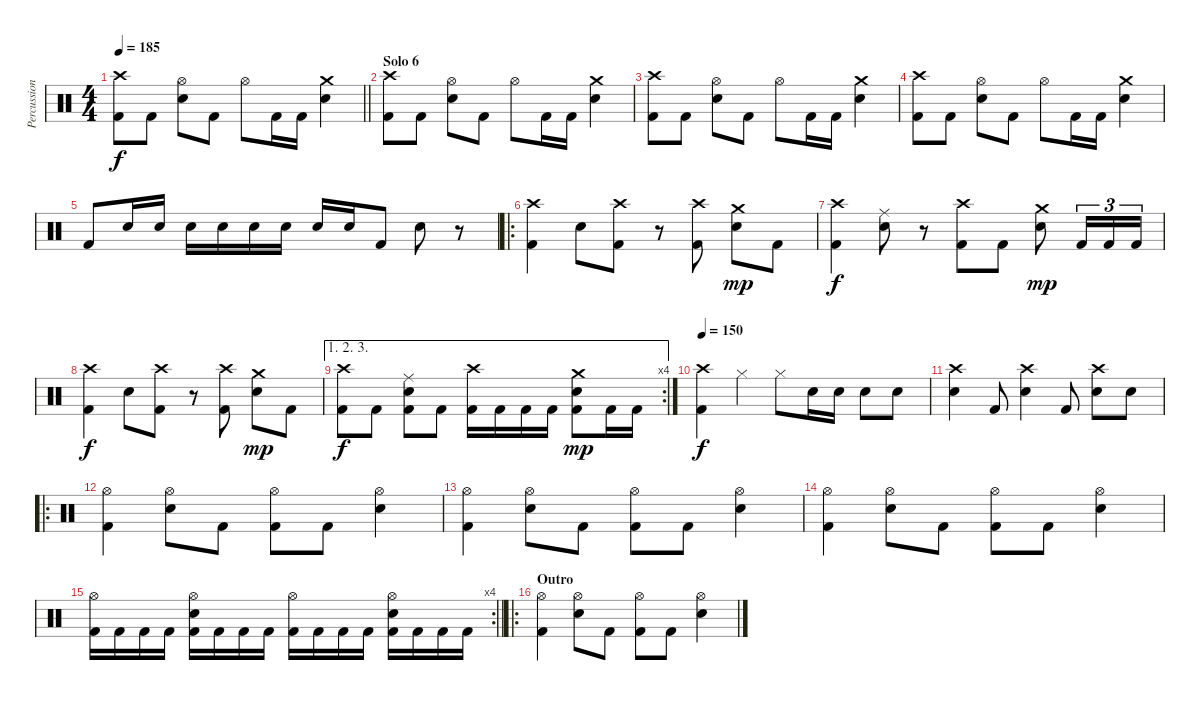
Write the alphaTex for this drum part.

\track ("Percussioni" "Percussion") {instrument percussion}
\staff {score}
\articulation defaults
\ts (4 4)
\tempo 185
\clef neutral
\barLineRight lightlight
\ks c
("Kick (hit) 2" "Crash high (hit)").8{dy f} "Kick (hit) 2".8 ("Snare (hit) 2" "Hi-Hat (open)").8 "Kick (hit) 2".8 "Hi-Hat (open)".8 "Kick (hit) 2".16 "Kick (hit) 2".16 ("Snare (hit) 2" "Crash medium (hit)").4 |
\section ("" "Solo 6")
("Kick (hit) 2" "Crash high (hit)").8 "Kick (hit) 2".8 ("Snare (hit) 2" "Hi-Hat (open)").8 "Kick (hit) 2".8 "Hi-Hat (open)".8 "Kick (hit) 2".16 "Kick (hit) 2".16 ("Snare (hit) 2" "Crash medium (hit)").4 |
("Kick (hit) 2" "Crash high (hit)").8 "Kick (hit) 2".8 ("Snare (hit) 2" "Hi-Hat (open)").8 "Kick (hit) 2".8 "Hi-Hat (open)".8 "Kick (hit) 2".16 "Kick (hit) 2".16 ("Snare (hit) 2" "Crash medium (hit)").4 |
("Kick (hit) 2" "Crash high (hit)").8 "Kick (hit) 2".8 ("Snare (hit) 2" "Hi-Hat (open)").8 "Kick (hit) 2".8 "Hi-Hat (open)".8 "Kick (hit) 2".16 "Kick (hit) 2".16 ("Snare (hit) 2" "Crash medium (hit)").4 |
"Kick (hit) 2".8 "Snare (hit) 2".16 "Snare (hit) 2".16 "Snare (hit) 2".16 "Snare (hit) 2".16 "Snare (hit) 2".16 "Snare (hit) 2".16 "Snare (hit) 2".16 "Snare (hit) 2".16 "Kick (hit) 2".8 "Snare (hit) 2".8 r.8 |
\ro
("Kick (hit) 2" "Crash high (hit)").4 "Snare (hit) 2".8 ("Kick (hit) 2" "Crash high (hit)").8 r.8 ("Kick (hit) 2" "Crash high (hit)").8 ("Snare (hit) 2" "Crash medium (hit)").8{dy mp} "Kick (hit) 2".8 |
("Kick (hit) 2" "Crash high (hit)").4{dy f} ("Snare (hit) 2" "Ride (middle)").8 r.8 ("Kick (hit) 2" "Crash high (hit)").8 "Kick (hit) 2".8 ("Snare (hit) 2" "Crash medium (hit)").8{dy mp} "Kick (hit) 2".16{tu (3 2)} "Kick (hit) 2".16{tu (3 2)} "Kick (hit) 2".16{tu (3 2)} |
("Kick (hit) 2" "Crash high (hit)").4{dy f} "Snare (hit) 2".8 ("Kick (hit) 2" "Crash high (hit)").8 r.8 ("Kick (hit) 2" "Crash high (hit)").8 ("Snare (hit) 2" "Crash medium (hit)").8{dy mp} "Kick (hit) 2".8 |
\ae (1 2 3)
\rc 4
("Kick (hit) 2" "Crash high (hit)").8{dy f} "Kick (hit) 2".8 ("Snare (hit) 2" "Ride (middle)" "Kick (hit) 2").8 "Kick (hit) 2".8 ("Kick (hit) 2" "Crash high (hit)").16 "Kick (hit) 2".16 "Kick (hit) 2".16 "Kick (hit) 2".16 ("Snare (hit) 2" "Crash medium (hit)" "Kick (hit) 2").8{dy mp} "Kick (hit) 2".16 "Kick (hit) 2".16 |
\tempo 150
("Kick (hit) 2" "Crash high (hit)").4{dy f} "Hi-Hat (closed)".4 "Hi-Hat (closed)".8 "Snare (hit) 2".16 "Snare (hit) 2".16 "Snare (hit) 2".8 "Snare (hit) 2".8 |
("Snare (hit) 2" "Crash high (hit)").4 "Kick (hit) 2".8 ("Snare (hit) 2" "Crash high (hit)").4 "Kick (hit) 2".8 ("Snare (hit) 2" "Crash high (hit)").8 "Snare (hit) 2".8 |
\ro
("Kick (hit) 2" "Hi-Hat (open)").4 ("Snare (hit) 2" "Hi-Hat (open)").8 "Kick (hit) 2".8 ("Kick (hit) 2" "Hi-Hat (open)").8 "Kick (hit) 2".8 ("Snare (hit) 2" "Hi-Hat (open)").4 |
("Kick (hit) 2" "Hi-Hat (open)").4 ("Snare (hit) 2" "Hi-Hat (open)").8 "Kick (hit) 2".8 ("Kick (hit) 2" "Hi-Hat (open)").8 "Kick (hit) 2".8 ("Snare (hit) 2" "Hi-Hat (open)").4 |
("Kick (hit) 2" "Hi-Hat (open)").4 ("Snare (hit) 2" "Hi-Hat (open)").8 "Kick (hit) 2".8 ("Kick (hit) 2" "Hi-Hat (open)").8 "Kick (hit) 2".8 ("Snare (hit) 2" "Hi-Hat (open)").4 |
\rc 4
\barLineRight lightlight
("Kick (hit) 2" "Hi-Hat (open)").16 "Kick (hit) 2".16 "Kick (hit) 2".16 "Kick (hit) 2".16 ("Kick (hit) 2" "Snare (hit) 2" "Hi-Hat (open)").16 "Kick (hit) 2".16 "Kick (hit) 2".16 "Kick (hit) 2".16 ("Kick (hit) 2" "Hi-Hat (open)").16 "Kick (hit) 2".16 "Kick (hit) 2".16 "Kick (hit) 2".16 ("Kick (hit) 2" "Snare (hit) 2" "Hi-Hat (open)").16 "Kick (hit) 2".16 "Kick (hit) 2".16 "Kick (hit) 2".16 |
\ro
\section ("" "Outro")
("Kick (hit) 2" "Hi-Hat (open)").4 ("Snare (hit) 2" "Hi-Hat (open)").8 "Kick (hit) 2".8 ("Kick (hit) 2" "Hi-Hat (open)").8 "Kick (hit) 2".8 ("Snare (hit) 2" "Hi-Hat (open)").4
